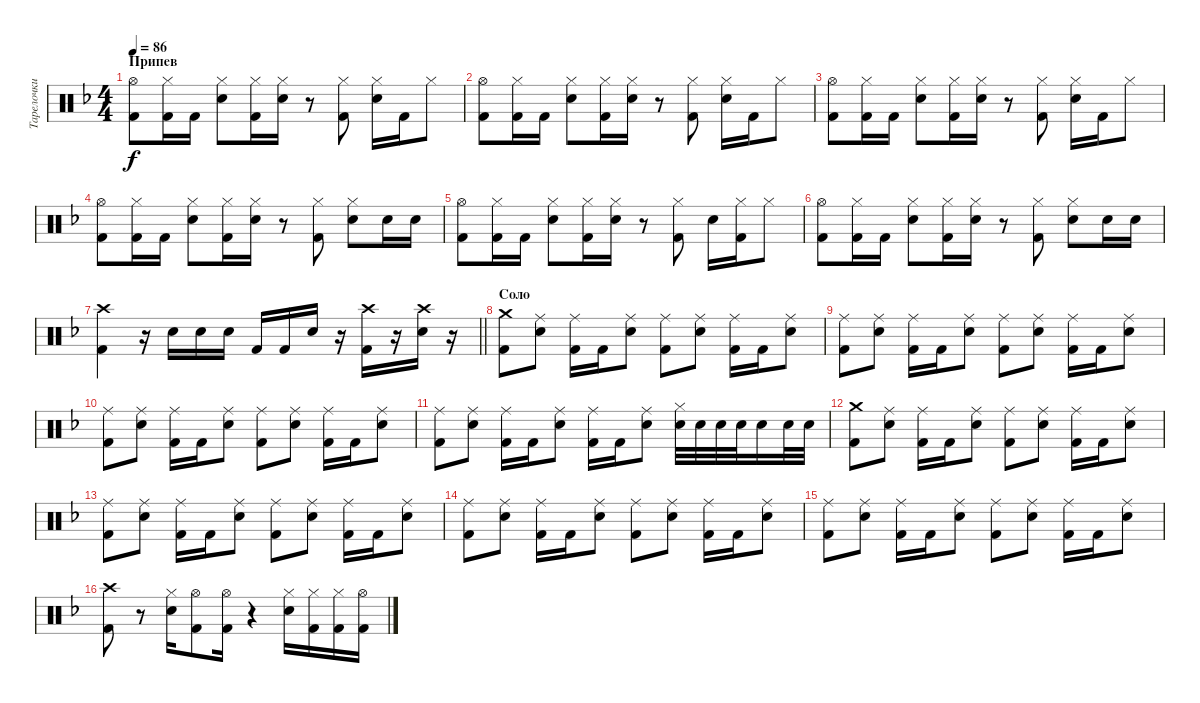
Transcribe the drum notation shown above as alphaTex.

\track ("Тарелочки" "Тарелочки") {instrument percussion}
\staff {score}
\articulation defaults
\ts (4 4)
\section ("" "Припев")
\tempo 86
\clef neutral
\ks f
("Kick (hit) 2" "Hi-Hat (open)").8{dy f} ("Kick (hit) 2" "Hi-Hat (closed)").16 "Kick (hit) 2".16 ("Snare (hit) 2" "Hi-Hat (closed)").8 ("Kick (hit) 2" "Hi-Hat (closed)").16 ("Snare (hit) 2" "Hi-Hat (closed)").16 r.8 ("Kick (hit) 2" "Hi-Hat (closed)").8 ("Snare (hit) 2" "Hi-Hat (closed)").16 "Kick (hit) 2".16 "Hi-Hat (closed)".8 |
("Kick (hit) 2" "Hi-Hat (open)").8 ("Kick (hit) 2" "Hi-Hat (closed)").16 "Kick (hit) 2".16 ("Snare (hit) 2" "Hi-Hat (closed)").8 ("Kick (hit) 2" "Hi-Hat (closed)").16 ("Snare (hit) 2" "Hi-Hat (closed)").16 r.8 ("Kick (hit) 2" "Hi-Hat (closed)").8 ("Snare (hit) 2" "Hi-Hat (closed)").16 "Kick (hit) 2".16 "Hi-Hat (closed)".8 |
("Kick (hit) 2" "Hi-Hat (open)").8 ("Kick (hit) 2" "Hi-Hat (closed)").16 "Kick (hit) 2".16 ("Snare (hit) 2" "Hi-Hat (closed)").8 ("Kick (hit) 2" "Hi-Hat (closed)").16 ("Snare (hit) 2" "Hi-Hat (closed)").16 r.8 ("Kick (hit) 2" "Hi-Hat (closed)").8 ("Snare (hit) 2" "Hi-Hat (closed)").16 "Kick (hit) 2".16 "Hi-Hat (closed)".8 |
("Kick (hit) 2" "Hi-Hat (open)").8 ("Kick (hit) 2" "Hi-Hat (closed)").16 "Kick (hit) 2".16 ("Snare (hit) 2" "Hi-Hat (closed)").8 ("Kick (hit) 2" "Hi-Hat (closed)").16 ("Snare (hit) 2" "Hi-Hat (closed)").16 r.8 ("Kick (hit) 2" "Hi-Hat (closed)").8 ("Snare (hit) 2" "Hi-Hat (closed)").8 "Snare (hit) 2".16 "Snare (hit) 2".16 |
("Kick (hit) 2" "Hi-Hat (open)").8 ("Kick (hit) 2" "Hi-Hat (closed)").16 "Kick (hit) 2".16 ("Snare (hit) 2" "Hi-Hat (closed)").8 ("Kick (hit) 2" "Hi-Hat (closed)").16 ("Snare (hit) 2" "Hi-Hat (closed)").16 r.8 ("Kick (hit) 2" "Hi-Hat (closed)").8 "Snare (hit) 2".16 ("Kick (hit) 2" "Hi-Hat (closed)").16 "Hi-Hat (closed)".8 |
("Kick (hit) 2" "Hi-Hat (open)").8 ("Kick (hit) 2" "Hi-Hat (closed)").16 "Kick (hit) 2".16 ("Snare (hit) 2" "Hi-Hat (closed)").8 ("Kick (hit) 2" "Hi-Hat (closed)").16 ("Snare (hit) 2" "Hi-Hat (closed)").16 r.8 ("Kick (hit) 2" "Hi-Hat (closed)").8 ("Snare (hit) 2" "Hi-Hat (closed)").8 "Snare (hit) 2".16 "Snare (hit) 2".16 |
\barLineRight lightlight
("Kick (hit) 2" "Crash high (hit)").4 r.16 "Snare (hit) 2".16 "Snare (hit) 2".16 "Snare (hit) 2".16 "Kick (hit) 2".16 "Kick (hit) 2".16 "Snare (hit) 2".16 r.16 ("Kick (hit) 2" "Crash high (hit)").16 r.16 ("Snare (hit) 2" "Crash high (hit)").16 r.16 |
\section ("" "Соло ")
("Kick (hit) 2" "Crash medium (hit)").8 ("Snare (hit) 2" "Ride (middle)").8 ("Kick (hit) 2" "Ride (middle)").16 "Kick (hit) 2".16 ("Snare (hit) 2" "Ride (middle)").8 ("Kick (hit) 2" "Ride (middle)").8 ("Snare (hit) 2" "Ride (middle)").8 ("Kick (hit) 2" "Ride (middle)").16 "Kick (hit) 2".16 ("Snare (hit) 2" "Ride (middle)").8 |
("Kick (hit) 2" "Ride (middle)").8 ("Snare (hit) 2" "Ride (middle)").8 ("Kick (hit) 2" "Ride (middle)").16 "Kick (hit) 2".16 ("Snare (hit) 2" "Ride (middle)").8 ("Kick (hit) 2" "Ride (middle)").8 ("Snare (hit) 2" "Ride (middle)").8 ("Kick (hit) 2" "Ride (middle)").16 "Kick (hit) 2".16 ("Snare (hit) 2" "Ride (middle)").8 |
("Kick (hit) 2" "Ride (middle)").8 ("Snare (hit) 2" "Ride (middle)").8 ("Kick (hit) 2" "Ride (middle)").16 "Kick (hit) 2".16 ("Snare (hit) 2" "Ride (middle)").8 ("Kick (hit) 2" "Ride (middle)").8 ("Snare (hit) 2" "Ride (middle)").8 ("Kick (hit) 2" "Ride (middle)").16 "Kick (hit) 2".16 ("Snare (hit) 2" "Ride (middle)").8 |
("Kick (hit) 2" "Ride (middle)").8 ("Snare (hit) 2" "Ride (middle)").8 ("Kick (hit) 2" "Ride (middle)").16 "Kick (hit) 2".16 ("Snare (hit) 2" "Ride (middle)").8 ("Kick (hit) 2" "Ride (middle)").16 "Kick (hit) 2".16 ("Snare (hit) 2" "Ride (middle)").8 ("Snare (hit) 2" "Hi-Hat (closed)").32 "Snare (hit) 2".32 "Snare (hit) 2".32 "Electric Snare (hit)".32 "Snare (hit) 2".16 "Snare (hit) 2".32 "Snare (hit) 2".32 |
("Kick (hit) 2" "Crash medium (hit)").8 ("Snare (hit) 2" "Ride (middle)").8 ("Kick (hit) 2" "Ride (middle)").16 "Kick (hit) 2".16 ("Snare (hit) 2" "Ride (middle)").8 ("Kick (hit) 2" "Ride (middle)").8 ("Snare (hit) 2" "Ride (middle)").8 ("Kick (hit) 2" "Ride (middle)").16 "Kick (hit) 2".16 ("Snare (hit) 2" "Ride (middle)").8 |
("Kick (hit) 2" "Ride (middle)").8 ("Snare (hit) 2" "Ride (middle)").8 ("Kick (hit) 2" "Ride (middle)").16 "Kick (hit) 2".16 ("Snare (hit) 2" "Ride (middle)").8 ("Kick (hit) 2" "Ride (middle)").8 ("Snare (hit) 2" "Ride (middle)").8 ("Kick (hit) 2" "Ride (middle)").16 "Kick (hit) 2".16 ("Snare (hit) 2" "Ride (middle)").8 |
("Kick (hit) 2" "Ride (middle)").8 ("Snare (hit) 2" "Ride (middle)").8 ("Kick (hit) 2" "Ride (middle)").16 "Kick (hit) 2".16 ("Snare (hit) 2" "Ride (middle)").8 ("Kick (hit) 2" "Ride (middle)").8 ("Snare (hit) 2" "Ride (middle)").8 ("Kick (hit) 2" "Ride (middle)").16 "Kick (hit) 2".16 ("Snare (hit) 2" "Ride (middle)").8 |
("Kick (hit) 2" "Ride (middle)").8 ("Snare (hit) 2" "Ride (middle)").8 ("Kick (hit) 2" "Ride (middle)").16 "Kick (hit) 2".16 ("Snare (hit) 2" "Ride (middle)").8 ("Kick (hit) 2" "Ride (middle)").8 ("Snare (hit) 2" "Ride (middle)").8 ("Kick (hit) 2" "Ride (middle)").16 "Kick (hit) 2".16 ("Snare (hit) 2" "Ride (middle)").8 |
("Kick (hit) 2" "Crash high (hit)").8 r.8 ("Snare (hit) 2" "Hi-Hat (closed)").16 ("Kick (hit) 2" "Hi-Hat (open)").8 ("Kick (hit) 2" "Hi-Hat (open)").16 r.4 ("Snare (hit) 2" "Hi-Hat (closed)").16 ("Kick (hit) 2" "Hi-Hat (closed)").16 ("Kick (hit) 2" "Hi-Hat (closed)").16 ("Kick (hit) 2" "Hi-Hat (open)").16
